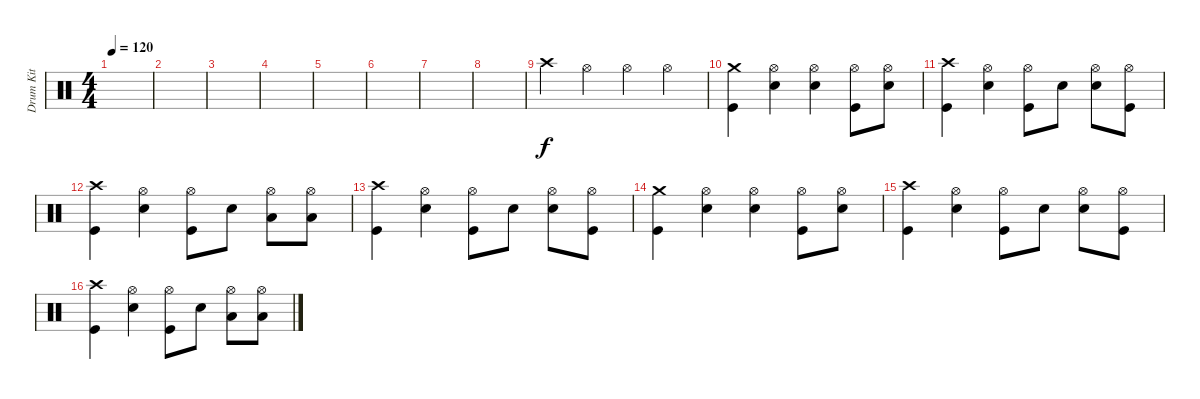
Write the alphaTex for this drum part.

\track ("Drum Kit" "Drum Kit") {instrument percussion}
\staff {score}
\articulation defaults
\ts (4 4)
\tempo 120
\clef neutral
\ks c
|
|
|
|
|
|
|
|
"Crash high (hit)".4 "Hi-Hat (open)".4 "Hi-Hat (open)".4 "Hi-Hat (open)".4 |
("Crash medium (hit)" "Kick (hit)").4 ("Hi-Hat (open)" "Snare (hit) 2").4 ("Hi-Hat (open)" "Snare (hit) 2").4 ("Hi-Hat (open)" "Kick (hit)").8 ("Hi-Hat (open)" "Snare (hit) 2").8 |
("Crash high (hit)" "Kick (hit)").4 ("Hi-Hat (open)" "Snare (hit) 2").4 ("Hi-Hat (open)" "Kick (hit)").8 "Snare (hit) 2".8 ("Hi-Hat (open)" "Snare (hit) 2").8 ("Hi-Hat (open)" "Kick (hit)").8 |
("Crash high (hit)" "Kick (hit)").4 ("Hi-Hat (open)" "Snare (hit) 2").4 ("Hi-Hat (open)" "Kick (hit)").8 "Snare (hit) 2".8 ("Hi-Hat (open)" "Low Tom (hit)").8 ("Hi-Hat (open)" "Low Floor Tom (hit)").8 |
("Crash high (hit)" "Kick (hit)").4 ("Hi-Hat (open)" "Snare (hit) 2").4 ("Hi-Hat (open)" "Kick (hit)").8 "Snare (hit) 2".8 ("Hi-Hat (open)" "Snare (hit) 2").8 ("Hi-Hat (open)" "Kick (hit)").8 |
("Crash medium (hit)" "Kick (hit)").4 ("Hi-Hat (open)" "Snare (hit) 2").4 ("Hi-Hat (open)" "Snare (hit) 2").4 ("Hi-Hat (open)" "Kick (hit)").8 ("Hi-Hat (open)" "Snare (hit) 2").8 |
("Crash high (hit)" "Kick (hit)").4 ("Hi-Hat (open)" "Snare (hit) 2").4 ("Hi-Hat (open)" "Kick (hit)").8 "Snare (hit) 2".8 ("Hi-Hat (open)" "Snare (hit) 2").8 ("Hi-Hat (open)" "Kick (hit)").8 |
("Crash high (hit)" "Kick (hit)").4 ("Hi-Hat (open)" "Snare (hit) 2").4 ("Hi-Hat (open)" "Kick (hit)").8 "Snare (hit) 2".8 ("Hi-Hat (open)" "Low Tom (hit)").8 ("Hi-Hat (open)" "Low Floor Tom (hit)").8
